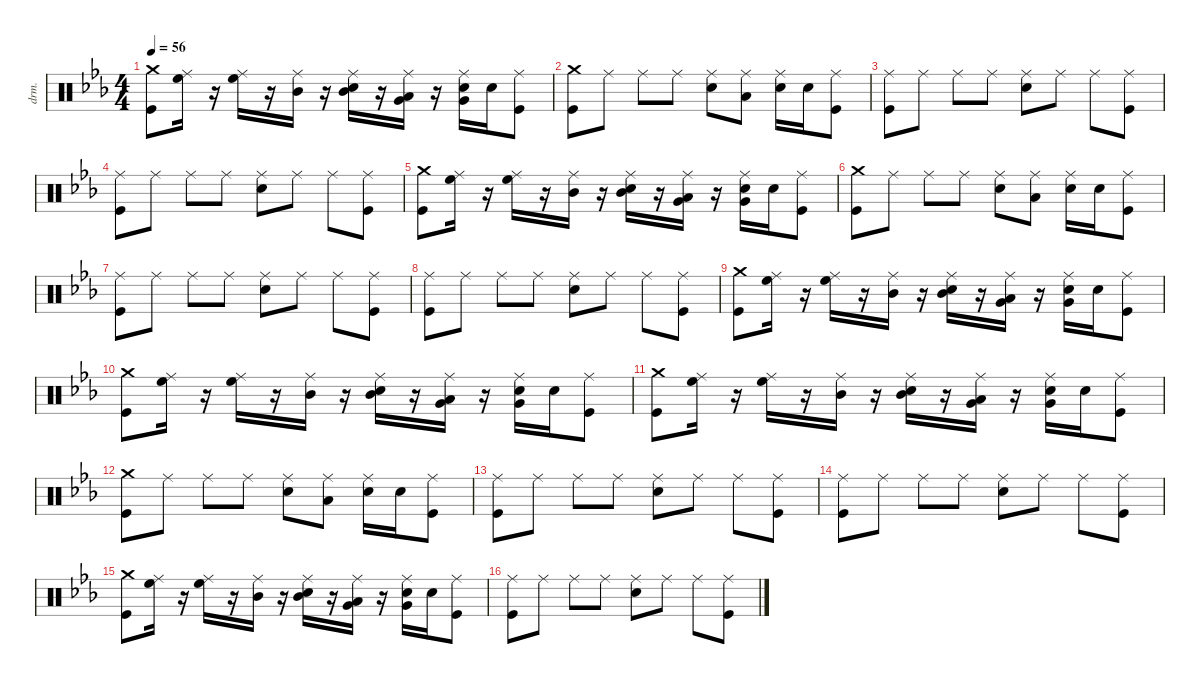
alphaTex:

\defaultSystemsLayout 4
\hideDynamics
\bracketExtendMode nobrackets
\otherSystemsTrackNameOrientation horizontal
\track ("Percussion" "drm.") {instrument percussion}
\staff {score}
\articulation defaults
\ts (4 4)
\tempo 56
\clef neutral
\ks eb
("Crash medium (hit)"{acc forcenatural} "Kick (hit)"{acc forcenatural}).8{dy f} ("High Floor Tom (hit)"{acc forcenatural} "Ride (middle)"{acc forcenatural}).16 r.16 ("High Floor Tom (hit)"{acc forcenatural} "Ride (middle)"{acc forcenatural}).16 r.16 ("Mid Tom (hit)"{acc forcenatural} "Ride (middle)"{acc forcenatural}).16 r.16 ("Mid Tom (hit)"{acc forcenatural} "Snare (hit) 2"{acc forcenatural} "Ride (middle)"{acc forcenatural}).16 r.16 ("Very Low Tom (hit)"{acc forcenatural} "Low Floor Tom (hit)"{acc forcenatural} "Ride (middle)"{acc forcenatural}).16 r.16 ("Very Low Tom (hit)"{acc forcenatural} "Snare (hit) 2"{acc forcenatural} "Ride (middle)"{acc forcenatural}).16 "Snare (hit) 2"{acc forcenatural}.16 ("Kick (hit)"{acc forcenatural} "Ride (middle)"{acc forcenatural}).8 |
("Crash medium (hit)"{acc forcenatural} "Kick (hit)"{acc forcenatural}).8 "Ride (middle)"{acc forcenatural}.8 "Ride (middle)"{acc forcenatural}.8 "Ride (middle)"{acc forcenatural}.8 ("Snare (hit) 2"{acc forcenatural} "Ride (middle)"{acc forcenatural}).8 ("Low Floor Tom (hit)"{acc forcenatural} "Ride (middle)"{acc forcenatural}).8 ("Snare (hit) 2"{acc forcenatural} "Ride (middle)"{acc forcenatural}).16 "Snare (hit) 2"{acc forcenatural}.16 ("Kick (hit)"{acc forcenatural} "Ride (middle)"{acc forcenatural}).8 |
("Ride (middle)"{acc forcenatural} "Kick (hit)"{acc forcenatural}).8 "Ride (middle)"{acc forcenatural}.8 "Ride (middle)"{acc forcenatural}.8 "Ride (middle)"{acc forcenatural}.8 ("Snare (hit) 2"{acc forcenatural} "Ride (middle)"{acc forcenatural}).8 "Ride (middle)"{acc forcenatural}.8 "Ride (middle)"{acc forcenatural}.8 ("Kick (hit)"{acc forcenatural} "Ride (middle)"{acc forcenatural}).8 |
("Ride (middle)"{acc forcenatural} "Kick (hit)"{acc forcenatural}).8 "Ride (middle)"{acc forcenatural}.8 "Ride (middle)"{acc forcenatural}.8 "Ride (middle)"{acc forcenatural}.8 ("Snare (hit) 2"{acc forcenatural} "Ride (middle)"{acc forcenatural}).8 "Ride (middle)"{acc forcenatural}.8 "Ride (middle)"{acc forcenatural}.8 ("Kick (hit)"{acc forcenatural} "Ride (middle)"{acc forcenatural}).8 |
("Crash medium (hit)"{acc forcenatural} "Kick (hit)"{acc forcenatural}).8 ("High Floor Tom (hit)"{acc forcenatural} "Ride (middle)"{acc forcenatural}).16 r.16 ("High Floor Tom (hit)"{acc forcenatural} "Ride (middle)"{acc forcenatural}).16 r.16 ("Mid Tom (hit)"{acc forcenatural} "Ride (middle)"{acc forcenatural}).16 r.16 ("Mid Tom (hit)"{acc forcenatural} "Snare (hit) 2"{acc forcenatural} "Ride (middle)"{acc forcenatural}).16 r.16 ("Very Low Tom (hit)"{acc forcenatural} "Low Floor Tom (hit)"{acc forcenatural} "Ride (middle)"{acc forcenatural}).16 r.16 ("Very Low Tom (hit)"{acc forcenatural} "Snare (hit) 2"{acc forcenatural} "Ride (middle)"{acc forcenatural}).16 "Snare (hit) 2"{acc forcenatural}.16 ("Kick (hit)"{acc forcenatural} "Ride (middle)"{acc forcenatural}).8 |
("Crash medium (hit)"{acc forcenatural} "Kick (hit)"{acc forcenatural}).8 "Ride (middle)"{acc forcenatural}.8 "Ride (middle)"{acc forcenatural}.8 "Ride (middle)"{acc forcenatural}.8 ("Snare (hit) 2"{acc forcenatural} "Ride (middle)"{acc forcenatural}).8 ("Low Floor Tom (hit)"{acc forcenatural} "Ride (middle)"{acc forcenatural}).8 ("Snare (hit) 2"{acc forcenatural} "Ride (middle)"{acc forcenatural}).16 "Snare (hit) 2"{acc forcenatural}.16 ("Kick (hit)"{acc forcenatural} "Ride (middle)"{acc forcenatural}).8 |
("Ride (middle)"{acc forcenatural} "Kick (hit)"{acc forcenatural}).8 "Ride (middle)"{acc forcenatural}.8 "Ride (middle)"{acc forcenatural}.8 "Ride (middle)"{acc forcenatural}.8 ("Snare (hit) 2"{acc forcenatural} "Ride (middle)"{acc forcenatural}).8 "Ride (middle)"{acc forcenatural}.8 "Ride (middle)"{acc forcenatural}.8 ("Kick (hit)"{acc forcenatural} "Ride (middle)"{acc forcenatural}).8 |
("Ride (middle)"{acc forcenatural} "Kick (hit)"{acc forcenatural}).8 "Ride (middle)"{acc forcenatural}.8 "Ride (middle)"{acc forcenatural}.8 "Ride (middle)"{acc forcenatural}.8 ("Snare (hit) 2"{acc forcenatural} "Ride (middle)"{acc forcenatural}).8 "Ride (middle)"{acc forcenatural}.8 "Ride (middle)"{acc forcenatural}.8 ("Kick (hit)"{acc forcenatural} "Ride (middle)"{acc forcenatural}).8 |
("Crash medium (hit)"{acc forcenatural} "Kick (hit)"{acc forcenatural}).8 ("High Floor Tom (hit)"{acc forcenatural} "Ride (middle)"{acc forcenatural}).16 r.16 ("High Floor Tom (hit)"{acc forcenatural} "Ride (middle)"{acc forcenatural}).16 r.16 ("Mid Tom (hit)"{acc forcenatural} "Ride (middle)"{acc forcenatural}).16 r.16 ("Mid Tom (hit)"{acc forcenatural} "Snare (hit) 2"{acc forcenatural} "Ride (middle)"{acc forcenatural}).16 r.16 ("Very Low Tom (hit)"{acc forcenatural} "Low Floor Tom (hit)"{acc forcenatural} "Ride (middle)"{acc forcenatural}).16 r.16 ("Very Low Tom (hit)"{acc forcenatural} "Snare (hit) 2"{acc forcenatural} "Ride (middle)"{acc forcenatural}).16 "Snare (hit) 2"{acc forcenatural}.16 ("Kick (hit)"{acc forcenatural} "Ride (middle)"{acc forcenatural}).8 |
("Crash medium (hit)"{acc forcenatural} "Kick (hit)"{acc forcenatural}).8 ("High Floor Tom (hit)"{acc forcenatural} "Ride (middle)"{acc forcenatural}).16 r.16 ("High Floor Tom (hit)"{acc forcenatural} "Ride (middle)"{acc forcenatural}).16 r.16 ("Mid Tom (hit)"{acc forcenatural} "Ride (middle)"{acc forcenatural}).16 r.16 ("Mid Tom (hit)"{acc forcenatural} "Snare (hit) 2"{acc forcenatural} "Ride (middle)"{acc forcenatural}).16 r.16 ("Very Low Tom (hit)"{acc forcenatural} "Low Floor Tom (hit)"{acc forcenatural} "Ride (middle)"{acc forcenatural}).16 r.16 ("Very Low Tom (hit)"{acc forcenatural} "Snare (hit) 2"{acc forcenatural} "Ride (middle)"{acc forcenatural}).16 "Snare (hit) 2"{acc forcenatural}.16 ("Kick (hit)"{acc forcenatural} "Ride (middle)"{acc forcenatural}).8 |
("Crash medium (hit)"{acc forcenatural} "Kick (hit)"{acc forcenatural}).8 ("High Floor Tom (hit)"{acc forcenatural} "Ride (middle)"{acc forcenatural}).16 r.16 ("High Floor Tom (hit)"{acc forcenatural} "Ride (middle)"{acc forcenatural}).16 r.16 ("Mid Tom (hit)"{acc forcenatural} "Ride (middle)"{acc forcenatural}).16 r.16 ("Mid Tom (hit)"{acc forcenatural} "Snare (hit) 2"{acc forcenatural} "Ride (middle)"{acc forcenatural}).16 r.16 ("Very Low Tom (hit)"{acc forcenatural} "Low Floor Tom (hit)"{acc forcenatural} "Ride (middle)"{acc forcenatural}).16 r.16 ("Very Low Tom (hit)"{acc forcenatural} "Snare (hit) 2"{acc forcenatural} "Ride (middle)"{acc forcenatural}).16 "Snare (hit) 2"{acc forcenatural}.16 ("Kick (hit)"{acc forcenatural} "Ride (middle)"{acc forcenatural}).8 |
("Crash medium (hit)"{acc forcenatural} "Kick (hit)"{acc forcenatural}).8 "Ride (middle)"{acc forcenatural}.8 "Ride (middle)"{acc forcenatural}.8 "Ride (middle)"{acc forcenatural}.8 ("Snare (hit) 2"{acc forcenatural} "Ride (middle)"{acc forcenatural}).8 ("Low Floor Tom (hit)"{acc forcenatural} "Ride (middle)"{acc forcenatural}).8 ("Snare (hit) 2"{acc forcenatural} "Ride (middle)"{acc forcenatural}).16 "Snare (hit) 2"{acc forcenatural}.16 ("Kick (hit)"{acc forcenatural} "Ride (middle)"{acc forcenatural}).8 |
("Ride (middle)"{acc forcenatural} "Kick (hit)"{acc forcenatural}).8 "Ride (middle)"{acc forcenatural}.8 "Ride (middle)"{acc forcenatural}.8 "Ride (middle)"{acc forcenatural}.8 ("Snare (hit) 2"{acc forcenatural} "Ride (middle)"{acc forcenatural}).8 "Ride (middle)"{acc forcenatural}.8 "Ride (middle)"{acc forcenatural}.8 ("Kick (hit)"{acc forcenatural} "Ride (middle)"{acc forcenatural}).8 |
("Ride (middle)"{acc forcenatural} "Kick (hit)"{acc forcenatural}).8 "Ride (middle)"{acc forcenatural}.8 "Ride (middle)"{acc forcenatural}.8 "Ride (middle)"{acc forcenatural}.8 ("Snare (hit) 2"{acc forcenatural} "Ride (middle)"{acc forcenatural}).8 "Ride (middle)"{acc forcenatural}.8 "Ride (middle)"{acc forcenatural}.8 ("Kick (hit)"{acc forcenatural} "Ride (middle)"{acc forcenatural}).8 |
("Crash medium (hit)"{acc forcenatural} "Kick (hit)"{acc forcenatural}).8 ("High Floor Tom (hit)"{acc forcenatural} "Ride (middle)"{acc forcenatural}).16 r.16 ("High Floor Tom (hit)"{acc forcenatural} "Ride (middle)"{acc forcenatural}).16 r.16 ("Mid Tom (hit)"{acc forcenatural} "Ride (middle)"{acc forcenatural}).16 r.16 ("Mid Tom (hit)"{acc forcenatural} "Snare (hit) 2"{acc forcenatural} "Ride (middle)"{acc forcenatural}).16 r.16 ("Very Low Tom (hit)"{acc forcenatural} "Low Floor Tom (hit)"{acc forcenatural} "Ride (middle)"{acc forcenatural}).16 r.16 ("Very Low Tom (hit)"{acc forcenatural} "Snare (hit) 2"{acc forcenatural} "Ride (middle)"{acc forcenatural}).16 "Snare (hit) 2"{acc forcenatural}.16 ("Kick (hit)"{acc forcenatural} "Ride (middle)"{acc forcenatural}).8 |
("Ride (middle)"{acc forcenatural} "Kick (hit)"{acc forcenatural}).8 "Ride (middle)"{acc forcenatural}.8 "Ride (middle)"{acc forcenatural}.8 "Ride (middle)"{acc forcenatural}.8 ("Snare (hit) 2"{acc forcenatural} "Ride (middle)"{acc forcenatural}).8 "Ride (middle)"{acc forcenatural}.8 "Ride (middle)"{acc forcenatural}.8 ("Kick (hit)"{acc forcenatural} "Ride (middle)"{acc forcenatural}).8
